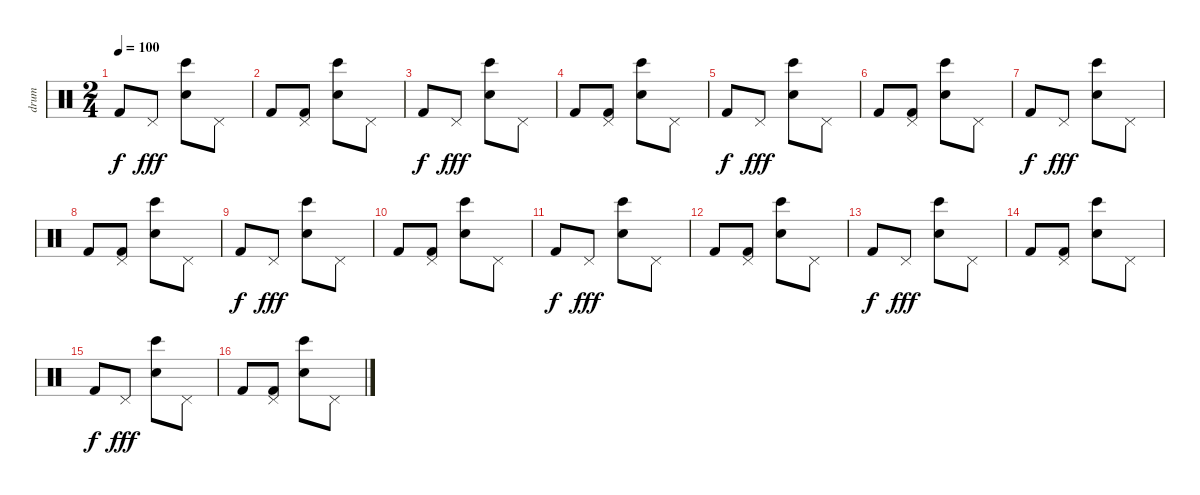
\track ("drum" "drum") {instrument percussion}
\staff {score}
\articulation defaults
\ts (2 4)
\tempo 100
\clef neutral
\ks c "Kick (hit) 2".8{dy f} "Pedal Hi-Hat (hit)".8{dy fff}
("Electric Snare (hit)" "Bongo High (hit)").8 "Pedal Hi-Hat (hit)".8 |
"Kick (hit) 2".8 ("Pedal Hi-Hat (hit)" "Kick (hit) 2").8 ("Electric Snare (hit)" "Bongo High (hit)").8 "Pedal Hi-Hat (hit)".8 |
"Kick (hit) 2".8{dy f} "Pedal Hi-Hat (hit)".8{dy fff} ("Electric Snare (hit)" "Bongo High (hit)").8 "Pedal Hi-Hat (hit)".8 |
"Kick (hit) 2".8 ("Pedal Hi-Hat (hit)" "Kick (hit) 2").8 ("Electric Snare (hit)" "Bongo High (hit)").8 "Pedal Hi-Hat (hit)".8 |
"Kick (hit) 2".8{dy f} "Pedal Hi-Hat (hit)".8{dy fff} ("Electric Snare (hit)" "Bongo High (hit)").8 "Pedal Hi-Hat (hit)".8 |
"Kick (hit) 2".8 ("Pedal Hi-Hat (hit)" "Kick (hit) 2").8 ("Electric Snare (hit)" "Bongo High (hit)").8 "Pedal Hi-Hat (hit)".8 |
"Kick (hit) 2".8{dy f} "Pedal Hi-Hat (hit)".8{dy fff} ("Electric Snare (hit)" "Bongo High (hit)").8 "Pedal Hi-Hat (hit)".8 |
"Kick (hit) 2".8 ("Pedal Hi-Hat (hit)" "Kick (hit) 2").8 ("Electric Snare (hit)" "Bongo High (hit)").8 "Pedal Hi-Hat (hit)".8 |
"Kick (hit) 2".8{dy f} "Pedal Hi-Hat (hit)".8{dy fff} ("Electric Snare (hit)" "Bongo High (hit)").8 "Pedal Hi-Hat (hit)".8 |
"Kick (hit) 2".8 ("Pedal Hi-Hat (hit)" "Kick (hit) 2").8 ("Electric Snare (hit)" "Bongo High (hit)").8 "Pedal Hi-Hat (hit)".8 |
"Kick (hit) 2".8{dy f} "Pedal Hi-Hat (hit)".8{dy fff} ("Electric Snare (hit)" "Bongo High (hit)").8 "Pedal Hi-Hat (hit)".8 |
"Kick (hit) 2".8 ("Pedal Hi-Hat (hit)" "Kick (hit) 2").8 ("Electric Snare (hit)" "Bongo High (hit)").8 "Pedal Hi-Hat (hit)".8 |
"Kick (hit) 2".8{dy f} "Pedal Hi-Hat (hit)".8{dy fff} ("Electric Snare (hit)" "Bongo High (hit)").8 "Pedal Hi-Hat (hit)".8 |
"Kick (hit) 2".8 ("Pedal Hi-Hat (hit)" "Kick (hit) 2").8 ("Electric Snare (hit)" "Bongo High (hit)").8 "Pedal Hi-Hat (hit)".8 |
"Kick (hit) 2".8{dy f} "Pedal Hi-Hat (hit)".8{dy fff} ("Electric Snare (hit)" "Bongo High (hit)").8 "Pedal Hi-Hat (hit)".8 |
"Kick (hit) 2".8 ("Pedal Hi-Hat (hit)" "Kick (hit) 2").8 ("Electric Snare (hit)" "Bongo High (hit)").8 "Pedal Hi-Hat (hit)".8
